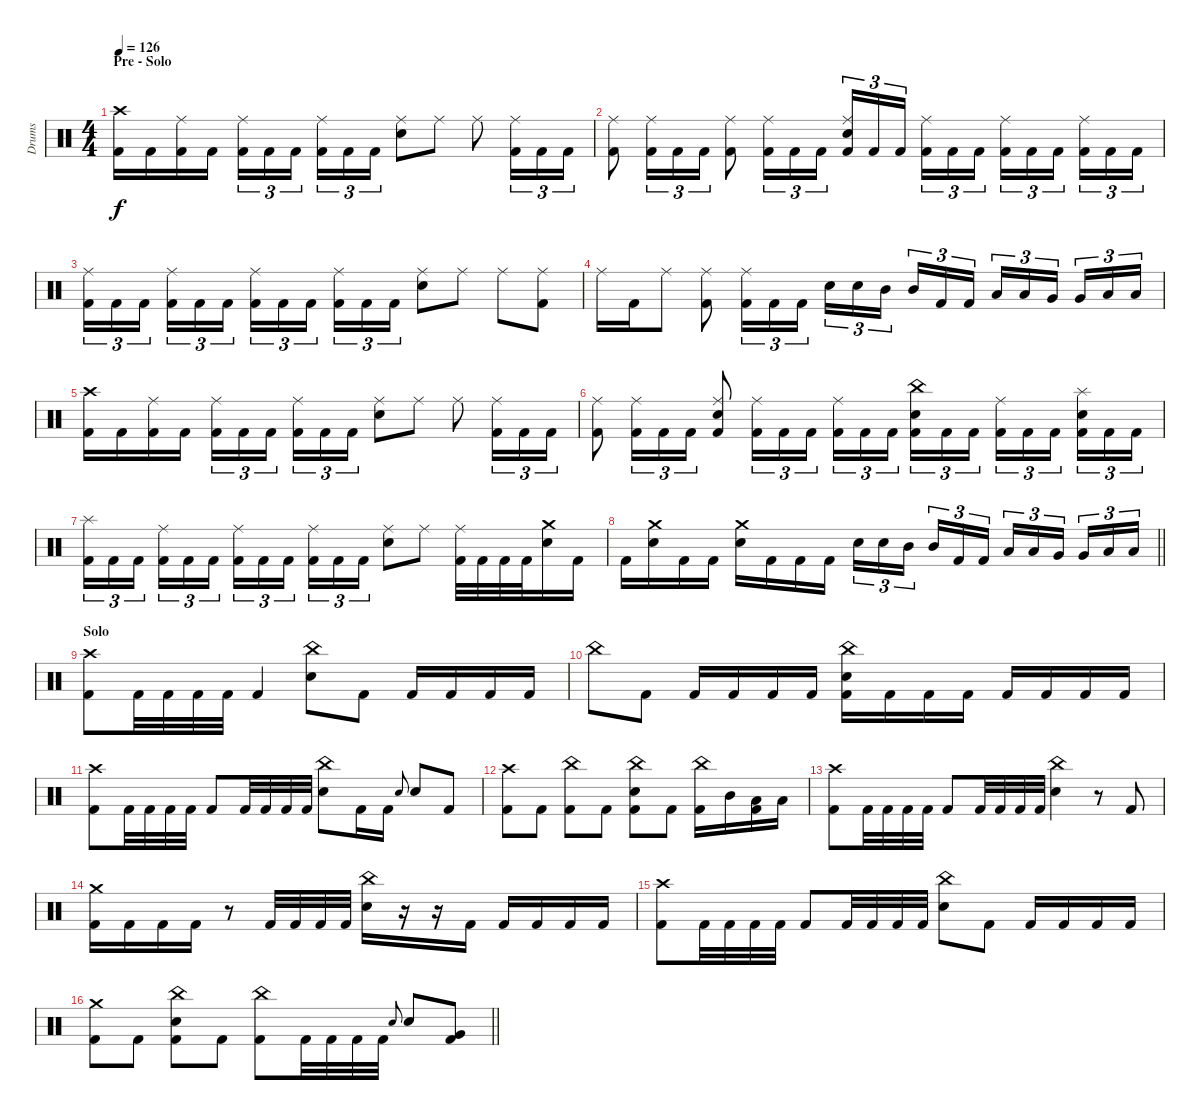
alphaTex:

\track ("Drums" "Drums") {instrument percussion}
\staff {score}
\articulation defaults
\ts (4 4)
\section ("" "Pre - Solo")
\tempo 126
\clef neutral
\ks c
("Crash high (hit)" "Kick (hit) 2").16{dy f} "Kick (hit) 2".16 ("Ride (middle)" "Kick (hit) 2").16 "Kick (hit) 2".16 ("Ride (middle)" "Kick (hit) 2").16{tu (3 2)} "Kick (hit) 2".16{tu (3 2)} "Kick (hit) 2".16{tu (3 2) beam splitsecondary} ("Ride (middle)" "Kick (hit) 2").16{tu (3 2)} "Kick (hit) 2".16{tu (3 2)} "Kick (hit) 2".16{tu (3 2)} ("Ride (middle)" "Electric Snare (hit)").8 "Ride (middle)".8 "Ride (middle)".8 ("Ride (middle)" "Kick (hit) 2").16{tu (3 2)} "Kick (hit) 2".16{tu (3 2)} "Kick (hit) 2".16{tu (3 2)} |
("Ride (middle)" "Kick (hit) 2").8 ("Ride (middle)" "Kick (hit) 2").16{tu (3 2)} "Kick (hit) 2".16{tu (3 2)} "Kick (hit) 2".16{tu (3 2)} ("Ride (middle)" "Kick (hit) 2").8 ("Ride (middle)" "Kick (hit) 2").16{tu (3 2)} "Kick (hit) 2".16{tu (3 2)} "Kick (hit) 2".16{tu (3 2)} ("Ride (middle)" "Electric Snare (hit)" "Kick (hit) 2").16{tu (3 2)} "Kick (hit) 2".16{tu (3 2)} "Kick (hit) 2".16{tu (3 2) beam splitsecondary} ("Ride (middle)" "Kick (hit) 2").16{tu (3 2)} "Kick (hit) 2".16{tu (3 2)} "Kick (hit) 2".16{tu (3 2)} ("Ride (middle)" "Kick (hit) 2").16{tu (3 2)} "Kick (hit) 2".16{tu (3 2)} "Kick (hit) 2".16{tu (3 2) beam splitsecondary} ("Ride (middle)" "Kick (hit) 2").16{tu (3 2)} "Kick (hit) 2".16{tu (3 2)} "Kick (hit) 2".16{tu (3 2)} |
("Ride (middle)" "Kick (hit) 2").16{tu (3 2)} "Kick (hit) 2".16{tu (3 2)} "Kick (hit) 2".16{tu (3 2) beam splitsecondary} ("Ride (middle)" "Kick (hit) 2").16{tu (3 2)} "Kick (hit) 2".16{tu (3 2)} "Kick (hit) 2".16{tu (3 2)} ("Ride (middle)" "Kick (hit) 2").16{tu (3 2)} "Kick (hit) 2".16{tu (3 2)} "Kick (hit) 2".16{tu (3 2) beam splitsecondary} ("Ride (middle)" "Kick (hit) 2").16{tu (3 2)} "Kick (hit) 2".16{tu (3 2)} "Kick (hit) 2".16{tu (3 2)} ("Ride (middle)" "Electric Snare (hit)").8 "Ride (middle)".8 "Ride (middle)".8 ("Ride (middle)" "Kick (hit) 2").8 |
"Ride (middle)".16 "Kick (hit) 2".16 "Ride (middle)".8 ("Ride (middle)" "Kick (hit) 2").8 ("Ride (middle)" "Kick (hit) 2").16{tu (3 2)} "Kick (hit) 2".16{tu (3 2)} "Kick (hit) 2".16{tu (3 2)} "Electric Snare (hit)".16{tu (3 2)} "Electric Snare (hit)".16{tu (3 2)} "Mid Tom (hit)".16{tu (3 2) beam splitsecondary} "Mid Tom (hit)".16{tu (3 2)} "Kick (hit) 2".16{tu (3 2)} "Kick (hit) 2".16{tu (3 2)} "Low Tom (hit)".16{tu (3 2)} "Low Tom (hit)".16{tu (3 2)} "Very Low Tom (hit)".16{tu (3 2) beam splitsecondary} "Very Low Tom (hit)".16{tu (3 2)} "Low Floor Tom (hit)".16{tu (3 2)} "Low Floor Tom (hit)".16{tu (3 2)} |
("Crash high (hit)" "Kick (hit) 2").16 "Kick (hit) 2".16 ("Ride (middle)" "Kick (hit) 2").16 "Kick (hit) 2".16 ("Ride (middle)" "Kick (hit) 2").16{tu (3 2)} "Kick (hit) 2".16{tu (3 2)} "Kick (hit) 2".16{tu (3 2) beam splitsecondary} ("Ride (middle)" "Kick (hit) 2").16{tu (3 2)} "Kick (hit) 2".16{tu (3 2)} "Kick (hit) 2".16{tu (3 2)} ("Ride (middle)" "Electric Snare (hit)").8 "Ride (middle)".8 "Ride (middle)".8 ("Ride (middle)" "Kick (hit) 2").16{tu (3 2)} "Kick (hit) 2".16{tu (3 2)} "Kick (hit) 2".16{tu (3 2)} |
("Ride (middle)" "Kick (hit) 2").8 ("Ride (middle)" "Kick (hit) 2").16{tu (3 2)} "Kick (hit) 2".16{tu (3 2)} "Kick (hit) 2".16{tu (3 2)} ("Ride (middle)" "Electric Snare (hit)" "Kick (hit) 2").8 ("Ride (middle)" "Kick (hit) 2").16{tu (3 2)} "Kick (hit) 2".16{tu (3 2)} "Kick (hit) 2".16{tu (3 2)} ("Ride (middle)" "Kick (hit) 2").16{tu (3 2)} "Kick (hit) 2".16{tu (3 2)} "Kick (hit) 2".16{tu (3 2) beam splitsecondary} ("China (hit)" "Electric Snare (hit)" "Kick (hit) 2").16{tu (3 2)} "Kick (hit) 2".16{tu (3 2)} "Kick (hit) 2".16{tu (3 2)} ("Ride (middle)" "Kick (hit) 2").16{tu (3 2)} "Kick (hit) 2".16{tu (3 2)} "Kick (hit) 2".16{tu (3 2) beam splitsecondary} ("Splash (hit)" "Electric Snare (hit)" "Kick (hit) 2").16{tu (3 2)} "Kick (hit) 2".16{tu (3 2)} "Kick (hit) 2".16{tu (3 2)} |
("Splash (hit)" "Kick (hit) 2").16{tu (3 2)} "Kick (hit) 2".16{tu (3 2)} "Kick (hit) 2".16{tu (3 2) beam splitsecondary} ("Ride (middle)" "Kick (hit) 2").16{tu (3 2)} "Kick (hit) 2".16{tu (3 2)} "Kick (hit) 2".16{tu (3 2)} ("Ride (middle)" "Kick (hit) 2").16{tu (3 2)} "Kick (hit) 2".16{tu (3 2)} "Kick (hit) 2".16{tu (3 2) beam splitsecondary} ("Ride (middle)" "Kick (hit) 2").16{tu (3 2)} "Kick (hit) 2".16{tu (3 2)} "Kick (hit) 2".16{tu (3 2)} ("Ride (middle)" "Electric Snare (hit)").8 "Ride (middle)".8 ("Ride (middle)" "Kick (hit) 2").32 "Kick (hit) 2".32 "Kick (hit) 2".32 "Kick (hit) 2".32 ("Crash medium (hit)" "Electric Snare (hit)").16 "Kick (hit) 2".16 |
\barLineRight lightlight "Kick (hit) 2".16
("Crash medium (hit)" "Electric Snare (hit)").16 "Kick (hit) 2".16 "Kick (hit) 2".16 ("Crash medium (hit)" "Electric Snare (hit)").16 "Kick (hit) 2".16 "Kick (hit) 2".16 "Kick (hit) 2".16 "Electric Snare (hit)".16{tu (3 2)} "Electric Snare (hit)".16{tu (3 2)} "Mid Tom (hit)".16{tu (3 2) beam splitsecondary} "Mid Tom (hit)".16{tu (3 2)} "Kick (hit) 2".16{tu (3 2)} "Kick (hit) 2".16{tu (3 2)} "Low Tom (hit)".16{tu (3 2)} "Low Tom (hit)".16{tu (3 2)} "Very Low Tom (hit)".16{tu (3 2) beam splitsecondary} "Very Low Tom (hit)".16{tu (3 2)} "Low Floor Tom (hit)".16{tu (3 2)} "Low Floor Tom (hit)".16{tu (3 2)} |
\section ("" "Solo")
("Crash high (hit)" "Kick (hit) 2").8 "Kick (hit) 2".32 "Kick (hit) 2".32 "Kick (hit) 2".32 "Kick (hit) 2".32 "Kick (hit) 2".4 ("China (hit)" "Electric Snare (hit)").8 "Kick (hit) 2".8 "Kick (hit) 2".16 "Kick (hit) 2".16 "Kick (hit) 2".16 "Kick (hit) 2".16 |
"China (hit)".8 "Kick (hit) 2".8 "Kick (hit) 2".16 "Kick (hit) 2".16 "Kick (hit) 2".16 "Kick (hit) 2".16 ("China (hit)" "Electric Snare (hit)" "Kick (hit) 2").16 "Kick (hit) 2".16 "Kick (hit) 2".16 "Kick (hit) 2".16 "Kick (hit) 2".16 "Kick (hit) 2".16 "Kick (hit) 2".16 "Kick (hit) 2".16 |
("Crash high (hit)" "Kick (hit) 2").8 "Kick (hit) 2".32 "Kick (hit) 2".32 "Kick (hit) 2".32 "Kick (hit) 2".32 "Kick (hit) 2".8 "Kick (hit) 2".32 "Kick (hit) 2".32 "Kick (hit) 2".32 "Kick (hit) 2".32 ("China (hit)" "Electric Snare (hit)").8 "Kick (hit) 2".16 "Kick (hit) 2".16 "Electric Snare (hit)".8{gr onbeat} "Electric Snare (hit)".8 "Kick (hit) 2".8 |
("Crash high (hit)" "Kick (hit) 2").8 "Kick (hit) 2".8 ("China (hit)" "Kick (hit) 2").8 "Kick (hit) 2".8 ("China (hit)" "Electric Snare (hit)" "Kick (hit) 2").8 "Kick (hit) 2".8 ("China (hit)" "Kick (hit) 2").16 "Mid Tom (hit)".16 ("Low Tom (hit)" "Kick (hit) 2").16 "Low Tom (hit)".16 |
("Crash high (hit)" "Kick (hit) 2").8 "Kick (hit) 2".32 "Kick (hit) 2".32 "Kick (hit) 2".32 "Kick (hit) 2".32 "Kick (hit) 2".8 "Kick (hit) 2".32 "Kick (hit) 2".32 "Kick (hit) 2".32 "Kick (hit) 2".32 ("China (hit)" "Electric Snare (hit)").4 r.8 "Kick (hit) 2".8 |
("Crash medium (hit)" "Kick (hit) 2").16 "Kick (hit) 2".16 "Kick (hit) 2".16 "Kick (hit) 2".16 r.8 "Kick (hit) 2".32 "Kick (hit) 2".32 "Kick (hit) 2".32 "Kick (hit) 2".32 ("China (hit)" "Electric Snare (hit)").16 r.16 r.16 "Kick (hit) 2".16 "Kick (hit) 2".16 "Kick (hit) 2".16 "Kick (hit) 2".16 "Kick (hit) 2".16 |
("Crash high (hit)" "Kick (hit) 2").8 "Kick (hit) 2".32 "Kick (hit) 2".32 "Kick (hit) 2".32 "Kick (hit) 2".32 "Kick (hit) 2".8 "Kick (hit) 2".32 "Kick (hit) 2".32 "Kick (hit) 2".32 "Kick (hit) 2".32 ("China (hit)" "Electric Snare (hit)").8 "Kick (hit) 2".8 "Kick (hit) 2".16 "Kick (hit) 2".16 "Kick (hit) 2".16 "Kick (hit) 2".16 |
\barLineRight lightlight
("Crash medium (hit)" "Kick (hit) 2").8 "Kick (hit) 2".8 ("China (hit)" "Electric Snare (hit)" "Kick (hit) 2").8 "Kick (hit) 2".8 ("China (hit)" "Kick (hit) 2").8 "Kick (hit) 2".32 "Kick (hit) 2".32 "Kick (hit) 2".32 "Kick (hit) 2".32 "Electric Snare (hit)".8{gr onbeat} "Electric Snare (hit)".8 ("Very Low Tom (hit)" "Kick (hit) 2").8
